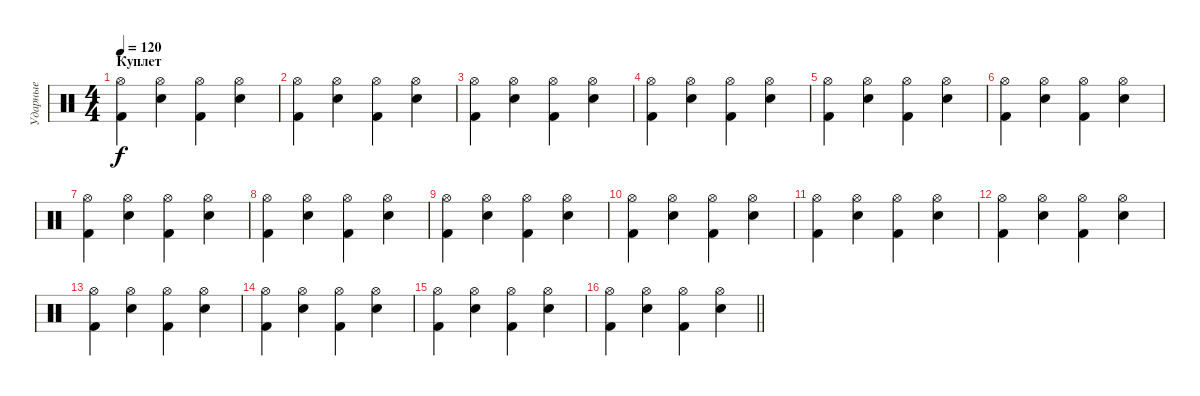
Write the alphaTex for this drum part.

\track ("Ударные" "Ударные") {instrument percussion}
\staff {score}
\articulation defaults
\ts (4 4)
\section ("" "Куплет")
\tempo 120
\clef neutral
\ks c
("Hi-Hat (open)" "Kick (hit) 2").4{dy f} ("Hi-Hat (open)" "Snare (hit) 2").4 ("Hi-Hat (open)" "Kick (hit) 2").4 ("Hi-Hat (open)" "Snare (hit) 2").4 |
("Hi-Hat (open)" "Kick (hit) 2").4 ("Hi-Hat (open)" "Snare (hit) 2").4 ("Hi-Hat (open)" "Kick (hit) 2").4 ("Hi-Hat (open)" "Snare (hit) 2").4 |
("Hi-Hat (open)" "Kick (hit) 2").4 ("Hi-Hat (open)" "Snare (hit) 2").4 ("Hi-Hat (open)" "Kick (hit) 2").4 ("Hi-Hat (open)" "Snare (hit) 2").4 |
("Hi-Hat (open)" "Kick (hit) 2").4 ("Hi-Hat (open)" "Snare (hit) 2").4 ("Hi-Hat (open)" "Kick (hit) 2").4 ("Hi-Hat (open)" "Snare (hit) 2").4 |
("Hi-Hat (open)" "Kick (hit) 2").4 ("Hi-Hat (open)" "Snare (hit) 2").4 ("Hi-Hat (open)" "Kick (hit) 2").4 ("Hi-Hat (open)" "Snare (hit) 2").4 |
("Hi-Hat (open)" "Kick (hit) 2").4 ("Hi-Hat (open)" "Snare (hit) 2").4 ("Hi-Hat (open)" "Kick (hit) 2").4 ("Hi-Hat (open)" "Snare (hit) 2").4 |
("Hi-Hat (open)" "Kick (hit) 2").4 ("Hi-Hat (open)" "Snare (hit) 2").4 ("Hi-Hat (open)" "Kick (hit) 2").4 ("Hi-Hat (open)" "Snare (hit) 2").4 |
("Hi-Hat (open)" "Kick (hit) 2").4 ("Hi-Hat (open)" "Snare (hit) 2").4 ("Hi-Hat (open)" "Kick (hit) 2").4 ("Hi-Hat (open)" "Snare (hit) 2").4 |
("Hi-Hat (open)" "Kick (hit) 2").4 ("Hi-Hat (open)" "Snare (hit) 2").4 ("Hi-Hat (open)" "Kick (hit) 2").4 ("Hi-Hat (open)" "Snare (hit) 2").4 |
("Hi-Hat (open)" "Kick (hit) 2").4 ("Hi-Hat (open)" "Snare (hit) 2").4 ("Hi-Hat (open)" "Kick (hit) 2").4 ("Hi-Hat (open)" "Snare (hit) 2").4 |
("Hi-Hat (open)" "Kick (hit) 2").4 ("Hi-Hat (open)" "Snare (hit) 2").4 ("Hi-Hat (open)" "Kick (hit) 2").4 ("Hi-Hat (open)" "Snare (hit) 2").4 |
("Hi-Hat (open)" "Kick (hit) 2").4 ("Hi-Hat (open)" "Snare (hit) 2").4 ("Hi-Hat (open)" "Kick (hit) 2").4 ("Hi-Hat (open)" "Snare (hit) 2").4 |
("Hi-Hat (open)" "Kick (hit) 2").4 ("Hi-Hat (open)" "Snare (hit) 2").4 ("Hi-Hat (open)" "Kick (hit) 2").4 ("Hi-Hat (open)" "Snare (hit) 2").4 |
("Hi-Hat (open)" "Kick (hit) 2").4 ("Hi-Hat (open)" "Snare (hit) 2").4 ("Hi-Hat (open)" "Kick (hit) 2").4 ("Hi-Hat (open)" "Snare (hit) 2").4 |
("Hi-Hat (open)" "Kick (hit) 2").4 ("Hi-Hat (open)" "Snare (hit) 2").4 ("Hi-Hat (open)" "Kick (hit) 2").4 ("Hi-Hat (open)" "Snare (hit) 2").4 |
\barLineRight lightlight
("Hi-Hat (open)" "Kick (hit) 2").4 ("Hi-Hat (open)" "Snare (hit) 2").4 ("Hi-Hat (open)" "Kick (hit) 2").4 ("Hi-Hat (open)" "Snare (hit) 2").4
